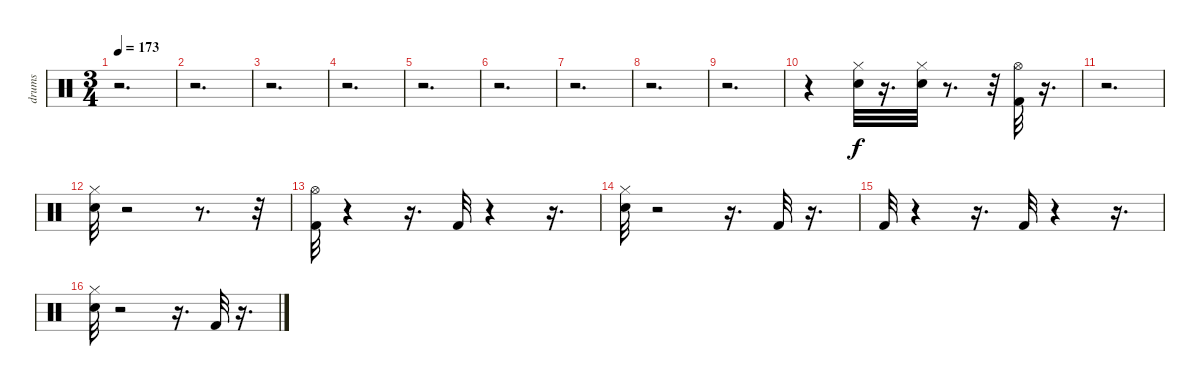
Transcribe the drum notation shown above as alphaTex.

\track ("drums" "drums") {instrument percussion}
\staff {score}
\articulation defaults
\ts (3 4)
\tempo 173
\clef neutral
\ks c
r.2{d dy f} |
r.2{d} |
r.2{d} |
r.2{d} |
r.2{d} |
r.2{d} |
r.2{d} |
r.2{d} |
r.2{d} |
r.4 ("Hi-Hat (closed)" "Snare (hit) 2").32 r.16{d} ("Hi-Hat (closed)" "Snare (hit) 2").32 r.8{d} r.32 ("Hi-Hat (open)" "Kick (hit) 2").32 r.16{d} |
r.2{d} |
("Hi-Hat (closed)" "Snare (hit) 2").32 r.2 r.8{d} r.32 |
("Hi-Hat (open)" "Kick (hit) 2").32 r.4 r.16{d} "Kick (hit) 2".32 r.4 r.16{d} |
("Hi-Hat (closed)" "Snare (hit) 2").32 r.2 r.16{d} "Kick (hit) 2".32 r.16{d} |
"Kick (hit) 2".32 r.4 r.16{d} "Kick (hit) 2".32 r.4 r.16{d} |
("Hi-Hat (closed)" "Snare (hit) 2").32 r.2 r.16{d} "Kick (hit) 2".32 r.16{d}
